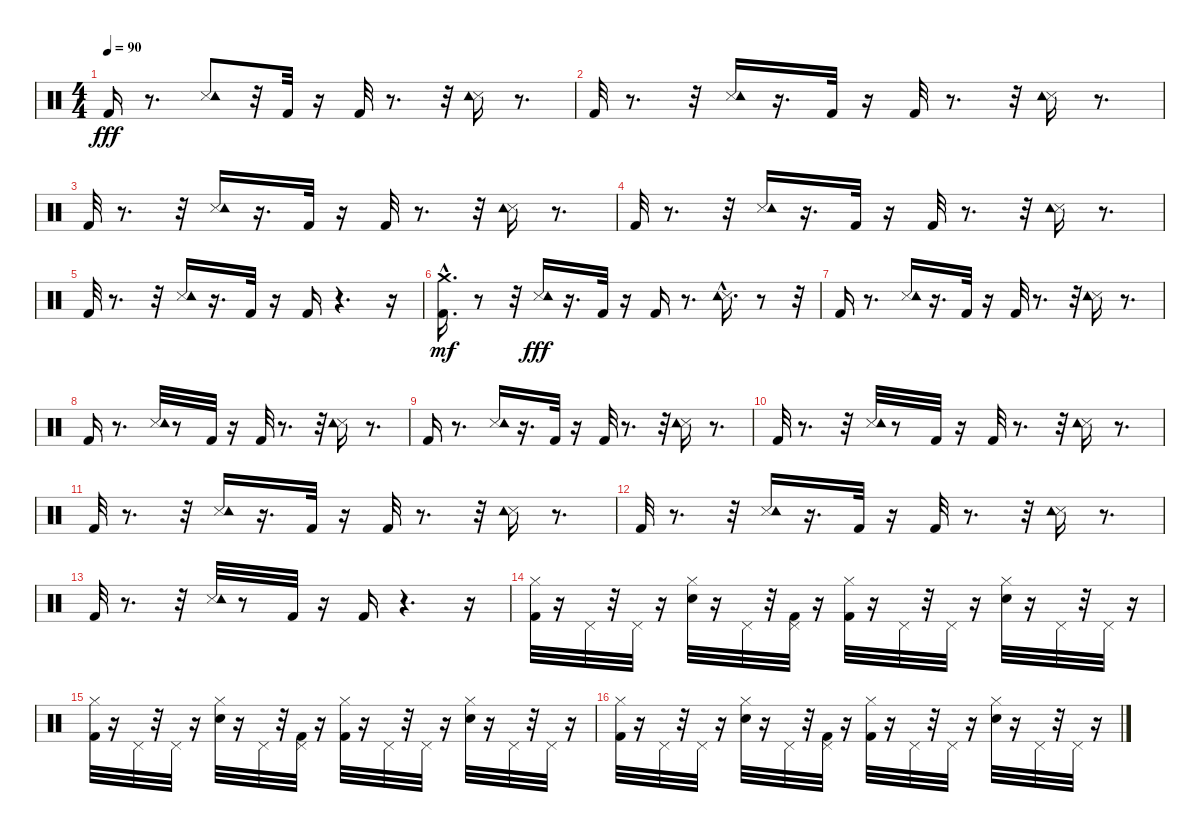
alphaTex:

\track "" {instrument percussion}
\staff {score}
\articulation defaults
\ts (4 4)
\tempo 90
\clef neutral
\ks c "Kick (hit) 2".16{dy fff}
r.8{d} ("Snare (side stick) 3" "Tambourine (hit)").8 r.32 "Kick (hit) 2".32 r.16 "Kick (hit) 2".32 r.8{d} r.32 ("Snare (side stick) 3" "Tambourine (hit)").16 r.8{d} |
"Kick (hit) 2".32 r.8{d} r.32 ("Snare (side stick) 3" "Tambourine (hit)").16 r.16{d} "Kick (hit) 2".32 r.16 "Kick (hit) 2".32 r.8{d} r.32 ("Snare (side stick) 3" "Tambourine (hit)").16 r.8{d} |
"Kick (hit) 2".32 r.8{d} r.32 ("Snare (side stick) 3" "Tambourine (hit)").16 r.16{d} "Kick (hit) 2".32 r.16 "Kick (hit) 2".32 r.8{d} r.32 ("Snare (side stick) 3" "Tambourine (hit)").16 r.8{d} |
"Kick (hit) 2".32 r.8{d} r.32 ("Snare (side stick) 3" "Tambourine (hit)").16 r.16{d} "Kick (hit) 2".32 r.16 "Kick (hit) 2".32 r.8{d} r.32 ("Snare (side stick) 3" "Tambourine (hit)").16 r.8{d} |
"Kick (hit) 2".32 r.8{d} r.32 ("Snare (side stick) 3" "Tambourine (hit)").16 r.16{d} "Kick (hit) 2".32 r.16 "Kick (hit) 2".16 r.4{d} r.16 |
("Kick (hit) 2"{hac} "Crash medium (hit)").16{d dy mf} r.8 r.32 ("Snare (side stick) 3" "Tambourine (hit)").16{dy fff} r.16{d} "Kick (hit) 2".32 r.16 "Kick (hit) 2".16 r.8{d} ("Snare (side stick) 3"{hac} "Tambourine (hit)").16{d} r.8 r.32 |
"Kick (hit) 2".16 r.8{d} ("Snare (side stick) 3" "Tambourine (hit)").16 r.16{d} "Kick (hit) 2".32 r.16 "Kick (hit) 2".32 r.8{d} r.32 ("Snare (side stick) 3" "Tambourine (hit)").16 r.8{d} |
"Kick (hit) 2".16 r.8{d} ("Snare (side stick) 3" "Tambourine (hit)").32 r.8 "Kick (hit) 2".32 r.16 "Kick (hit) 2".32 r.8{d} r.32 ("Snare (side stick) 3" "Tambourine (hit)").16 r.8{d} |
"Kick (hit) 2".16 r.8{d} ("Snare (side stick) 3" "Tambourine (hit)").16 r.16{d} "Kick (hit) 2".32 r.16 "Kick (hit) 2".32 r.8{d} r.32 ("Snare (side stick) 3" "Tambourine (hit)").16 r.8{d} |
"Kick (hit) 2".32 r.8{d} r.32 ("Snare (side stick) 3" "Tambourine (hit)").32 r.8 "Kick (hit) 2".32 r.16 "Kick (hit) 2".32 r.8{d} r.32 ("Snare (side stick) 3" "Tambourine (hit)").16 r.8{d} |
"Kick (hit) 2".32 r.8{d} r.32 ("Snare (side stick) 3" "Tambourine (hit)").16 r.16{d} "Kick (hit) 2".32 r.16 "Kick (hit) 2".32 r.8{d} r.32 ("Snare (side stick) 3" "Tambourine (hit)").16 r.8{d} |
"Kick (hit) 2".32 r.8{d} r.32 ("Snare (side stick) 3" "Tambourine (hit)").16 r.16{d} "Kick (hit) 2".32 r.16 "Kick (hit) 2".32 r.8{d} r.32 ("Snare (side stick) 3" "Tambourine (hit)").16 r.8{d} |
"Kick (hit) 2".32 r.8{d} r.32 ("Snare (side stick) 3" "Tambourine (hit)").32 r.8 "Kick (hit) 2".32 r.16 "Kick (hit) 2".16 r.4{d} r.16 |
("Kick (hit) 2" "Hi-Hat (closed)").32 r.16 "Pedal Hi-Hat (hit)".32 r.32 "Pedal Hi-Hat (hit)".32 r.16 ("Snare (hit) 2" "Hi-Hat (closed)").32 r.16 "Pedal Hi-Hat (hit)".32 r.32 ("Kick (hit) 2" "Pedal Hi-Hat (hit)").32 r.16 ("Kick (hit) 2" "Hi-Hat (closed)").32 r.16 "Pedal Hi-Hat (hit)".32 r.32 "Pedal Hi-Hat (hit)".32 r.16 ("Snare (hit) 2" "Hi-Hat (closed)").32 r.16 "Pedal Hi-Hat (hit)".32 r.32 "Pedal Hi-Hat (hit)".32 r.16 |
("Kick (hit) 2" "Hi-Hat (closed)").32 r.16 "Pedal Hi-Hat (hit)".32 r.32 "Pedal Hi-Hat (hit)".32 r.16 ("Snare (hit) 2" "Hi-Hat (closed)").32 r.16 "Pedal Hi-Hat (hit)".32 r.32 ("Kick (hit) 2" "Pedal Hi-Hat (hit)").32 r.16 ("Kick (hit) 2" "Hi-Hat (closed)").32 r.16 "Pedal Hi-Hat (hit)".32 r.32 "Pedal Hi-Hat (hit)".32 r.16 ("Snare (hit) 2" "Hi-Hat (closed)").32 r.16 "Pedal Hi-Hat (hit)".32 r.32 "Pedal Hi-Hat (hit)".32 r.16 |
("Kick (hit) 2" "Hi-Hat (closed)").32 r.16 "Pedal Hi-Hat (hit)".32 r.32 "Pedal Hi-Hat (hit)".32 r.16 ("Snare (hit) 2" "Hi-Hat (closed)").32 r.16 "Pedal Hi-Hat (hit)".32 r.32 ("Kick (hit) 2" "Pedal Hi-Hat (hit)").32 r.16 ("Kick (hit) 2" "Hi-Hat (closed)").32 r.16 "Pedal Hi-Hat (hit)".32 r.32 "Pedal Hi-Hat (hit)".32 r.16 ("Snare (hit) 2" "Hi-Hat (closed)").32 r.16 "Pedal Hi-Hat (hit)".32 r.32 "Pedal Hi-Hat (hit)".32 r.16
